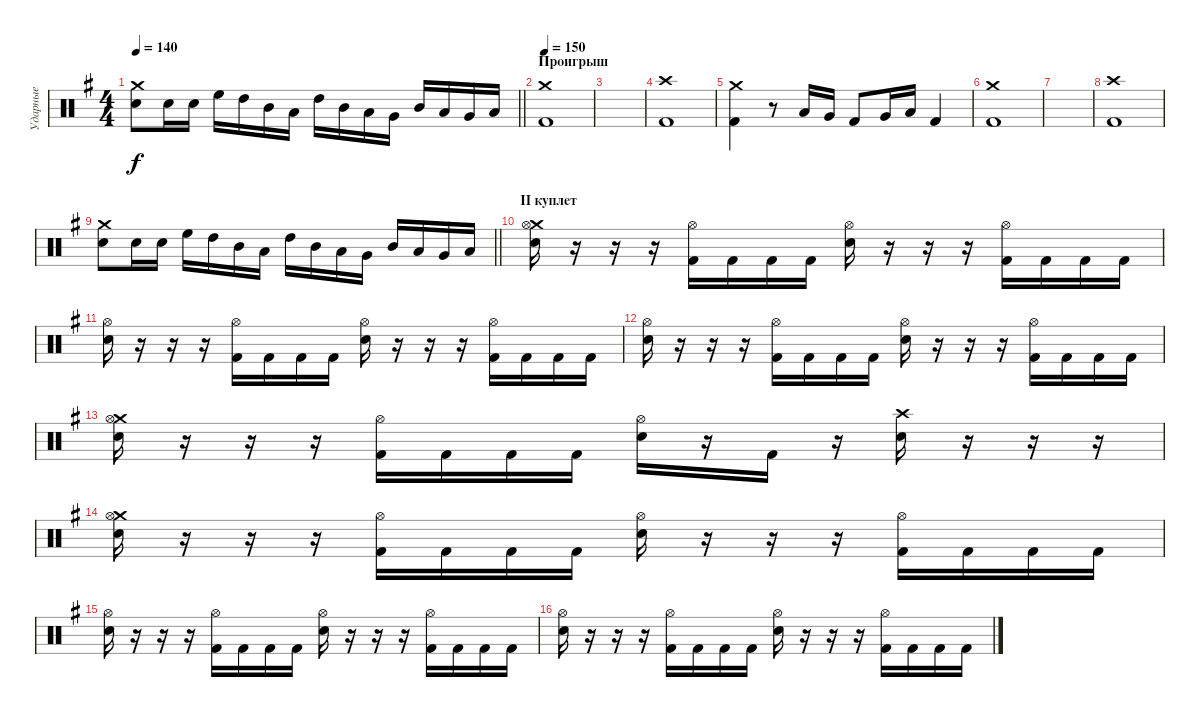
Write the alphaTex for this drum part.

\track ("Ударные" "Ударные") {instrument percussion}
\staff {score}
\articulation defaults
\ts (4 4)
\tempo 140
\clef neutral
\barLineRight lightlight
\ks eminor
("Crash medium (hit)" "Electric Snare (hit)").8{dy f} "Electric Snare (hit)".16 "Electric Snare (hit)".16 "High Floor Tom (hit)".16 "High Tom (hit)".16 "Mid Tom (hit)".16 "Low Tom (hit)".16 "High Tom (hit)".16 "Mid Tom (hit)".16 "Low Tom (hit)".16 "Very Low Tom (hit)".16 "Mid Tom (hit)".16 "Low Tom (hit)".16 "Very Low Tom (hit)".16 "Low Floor Tom (hit)".16 |
\section ("" "Проигрыш")
\tempo 150
("Crash medium (hit)" "Kick (hit) 2").1 |
|
("Crash high (hit)" "Kick (hit) 2").1 |
("Crash medium (hit)" "Kick (hit) 2").4 r.8 "Low Tom (hit)".16 "Very Low Tom (hit)".16 "Kick (hit) 2".8 "Very Low Tom (hit)".16 "Low Floor Tom (hit)".16 "Kick (hit) 2".4 |
("Crash medium (hit)" "Kick (hit) 2").1 |
|
("Crash high (hit)" "Kick (hit) 2").1 |
\barLineRight lightlight
("Crash medium (hit)" "Electric Snare (hit)").8 "Electric Snare (hit)".16 "Electric Snare (hit)".16 "High Floor Tom (hit)".16 "High Tom (hit)".16 "Mid Tom (hit)".16 "Low Tom (hit)".16 "High Tom (hit)".16 "Mid Tom (hit)".16 "Low Tom (hit)".16 "Very Low Tom (hit)".16 "Mid Tom (hit)".16 "Low Tom (hit)".16 "Very Low Tom (hit)".16 "Low Floor Tom (hit)".16 |
\section ("" "II куплет")
("Crash medium (hit)" "Electric Snare (hit)" "Hi-Hat (open)").16 r.16 r.16 r.16 ("Kick (hit) 2" "Hi-Hat (open)").16 "Kick (hit) 2".16 "Kick (hit) 2".16 "Kick (hit) 2".16 ("Electric Snare (hit)" "Hi-Hat (open)").16 r.16 r.16 r.16 ("Kick (hit) 2" "Hi-Hat (open)").16 "Kick (hit) 2".16 "Kick (hit) 2".16 "Kick (hit) 2".16 |
("Electric Snare (hit)" "Hi-Hat (open)").16 r.16 r.16 r.16 ("Kick (hit) 2" "Hi-Hat (open)").16 "Kick (hit) 2".16 "Kick (hit) 2".16 "Kick (hit) 2".16 ("Electric Snare (hit)" "Hi-Hat (open)").16 r.16 r.16 r.16 ("Kick (hit) 2" "Hi-Hat (open)").16 "Kick (hit) 2".16 "Kick (hit) 2".16 "Kick (hit) 2".16 |
("Electric Snare (hit)" "Hi-Hat (open)").16 r.16 r.16 r.16 ("Kick (hit) 2" "Hi-Hat (open)").16 "Kick (hit) 2".16 "Kick (hit) 2".16 "Kick (hit) 2".16 ("Electric Snare (hit)" "Hi-Hat (open)").16 r.16 r.16 r.16 ("Kick (hit) 2" "Hi-Hat (open)").16 "Kick (hit) 2".16 "Kick (hit) 2".16 "Kick (hit) 2".16 |
("Crash medium (hit)" "Electric Snare (hit)" "Hi-Hat (open)").16 r.16 r.16 r.16 ("Kick (hit) 2" "Hi-Hat (open)").16 "Kick (hit) 2".16 "Kick (hit) 2".16 "Kick (hit) 2".16 ("Electric Snare (hit)" "Hi-Hat (open)").16 r.16 "Kick (hit) 2".16 r.16 ("Crash high (hit)" "Electric Snare (hit)").16 r.16 r.16 r.16 |
("Crash medium (hit)" "Electric Snare (hit)" "Hi-Hat (open)").16 r.16 r.16 r.16 ("Kick (hit) 2" "Hi-Hat (open)").16 "Kick (hit) 2".16 "Kick (hit) 2".16 "Kick (hit) 2".16 ("Electric Snare (hit)" "Hi-Hat (open)").16 r.16 r.16 r.16 ("Kick (hit) 2" "Hi-Hat (open)").16 "Kick (hit) 2".16 "Kick (hit) 2".16 "Kick (hit) 2".16 |
("Electric Snare (hit)" "Hi-Hat (open)").16 r.16 r.16 r.16 ("Kick (hit) 2" "Hi-Hat (open)").16 "Kick (hit) 2".16 "Kick (hit) 2".16 "Kick (hit) 2".16 ("Electric Snare (hit)" "Hi-Hat (open)").16 r.16 r.16 r.16 ("Kick (hit) 2" "Hi-Hat (open)").16 "Kick (hit) 2".16 "Kick (hit) 2".16 "Kick (hit) 2".16 |
("Electric Snare (hit)" "Hi-Hat (open)").16 r.16 r.16 r.16 ("Kick (hit) 2" "Hi-Hat (open)").16 "Kick (hit) 2".16 "Kick (hit) 2".16 "Kick (hit) 2".16 ("Electric Snare (hit)" "Hi-Hat (open)").16 r.16 r.16 r.16 ("Kick (hit) 2" "Hi-Hat (open)").16 "Kick (hit) 2".16 "Kick (hit) 2".16 "Kick (hit) 2".16
